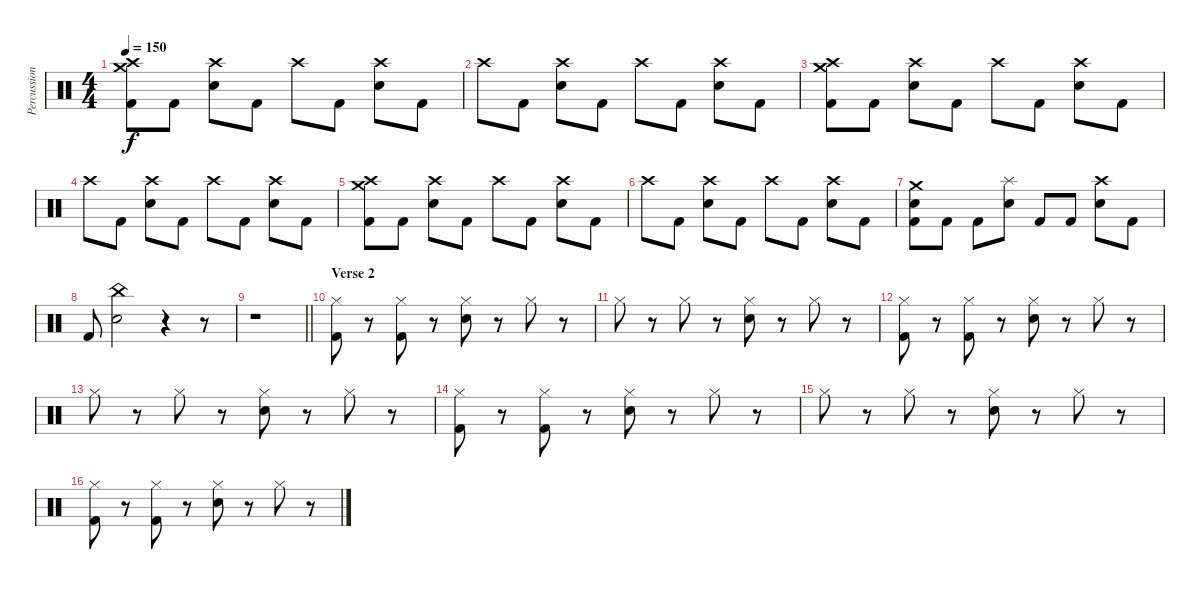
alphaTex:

\track ("Percussion" "Percussion") {instrument percussion}
\staff {score}
\articulation defaults
\ts (4 4)
\tempo 150
\clef neutral
\ks c
("Crash high (hit)" "Crash medium (hit)" "Kick (hit) 2").8{dy f} "Kick (hit) 2".8 ("Crash high (hit)" "Snare (hit) 2").8 "Kick (hit) 2".8 "Crash high (hit)".8 "Kick (hit) 2".8 ("Crash high (hit)" "Snare (hit) 2").8 "Kick (hit) 2".8 |
"Crash high (hit)".8 "Kick (hit) 2".8 ("Crash high (hit)" "Snare (hit) 2").8 "Kick (hit) 2".8 "Crash high (hit)".8 "Kick (hit) 2".8 ("Crash high (hit)" "Snare (hit) 2").8 "Kick (hit) 2".8 |
("Crash high (hit)" "Crash medium (hit)" "Kick (hit) 2").8 "Kick (hit) 2".8 ("Crash high (hit)" "Snare (hit) 2").8 "Kick (hit) 2".8 "Crash high (hit)".8 "Kick (hit) 2".8 ("Crash high (hit)" "Snare (hit) 2").8 "Kick (hit) 2".8 |
"Crash high (hit)".8 "Kick (hit) 2".8 ("Crash high (hit)" "Snare (hit) 2").8 "Kick (hit) 2".8 "Crash high (hit)".8 "Kick (hit) 2".8 ("Crash high (hit)" "Snare (hit) 2").8 "Kick (hit) 2".8 |
("Crash high (hit)" "Crash medium (hit)" "Kick (hit) 2").8 "Kick (hit) 2".8 ("Crash high (hit)" "Snare (hit) 2").8 "Kick (hit) 2".8 "Crash high (hit)".8 "Kick (hit) 2".8 ("Crash high (hit)" "Snare (hit) 2").8 "Kick (hit) 2".8 |
"Crash high (hit)".8 "Kick (hit) 2".8 ("Crash high (hit)" "Snare (hit) 2").8 "Kick (hit) 2".8 "Crash high (hit)".8 "Kick (hit) 2".8 ("Crash high (hit)" "Snare (hit) 2").8 "Kick (hit) 2".8 |
("Crash medium (hit)" "Snare (hit) 2" "Kick (hit) 2").8 "Kick (hit) 2".8 "Kick (hit) 2".8 ("Splash (hit)" "Snare (hit) 2").8 "Kick (hit) 2".8 "Kick (hit) 2".8 ("Crash high (hit)" "Snare (hit) 2").8 "Kick (hit) 2".8 |
"Kick (hit) 2".8 ("China (hit)" "Snare (hit) 2").2 r.4 r.8 |
\barLineRight lightlight
r.1 |
\section ("" "Verse 2")
("Hi-Hat (closed)" "Kick (hit) 2").8 r.8 ("Hi-Hat (closed)" "Kick (hit) 2").8 r.8 ("Hi-Hat (closed)" "Snare (hit) 2").8 r.8 "Hi-Hat (closed)".8 r.8 |
"Hi-Hat (closed)".8 r.8 "Hi-Hat (closed)".8 r.8 ("Hi-Hat (closed)" "Snare (hit) 2").8 r.8 "Hi-Hat (closed)".8 r.8 |
("Hi-Hat (closed)" "Kick (hit) 2").8 r.8 ("Hi-Hat (closed)" "Kick (hit) 2").8 r.8 ("Hi-Hat (closed)" "Snare (hit) 2").8 r.8 "Hi-Hat (closed)".8 r.8 |
"Hi-Hat (closed)".8 r.8 "Hi-Hat (closed)".8 r.8 ("Hi-Hat (closed)" "Snare (hit) 2").8 r.8 "Hi-Hat (closed)".8 r.8 |
("Hi-Hat (closed)" "Kick (hit) 2").8 r.8 ("Hi-Hat (closed)" "Kick (hit) 2").8 r.8 ("Hi-Hat (closed)" "Snare (hit) 2").8 r.8 "Hi-Hat (closed)".8 r.8 |
"Hi-Hat (closed)".8 r.8 "Hi-Hat (closed)".8 r.8 ("Hi-Hat (closed)" "Snare (hit) 2").8 r.8 "Hi-Hat (closed)".8 r.8 |
("Hi-Hat (closed)" "Kick (hit) 2").8 r.8 ("Hi-Hat (closed)" "Kick (hit) 2").8 r.8 ("Hi-Hat (closed)" "Snare (hit) 2").8 r.8 "Hi-Hat (closed)".8 r.8
